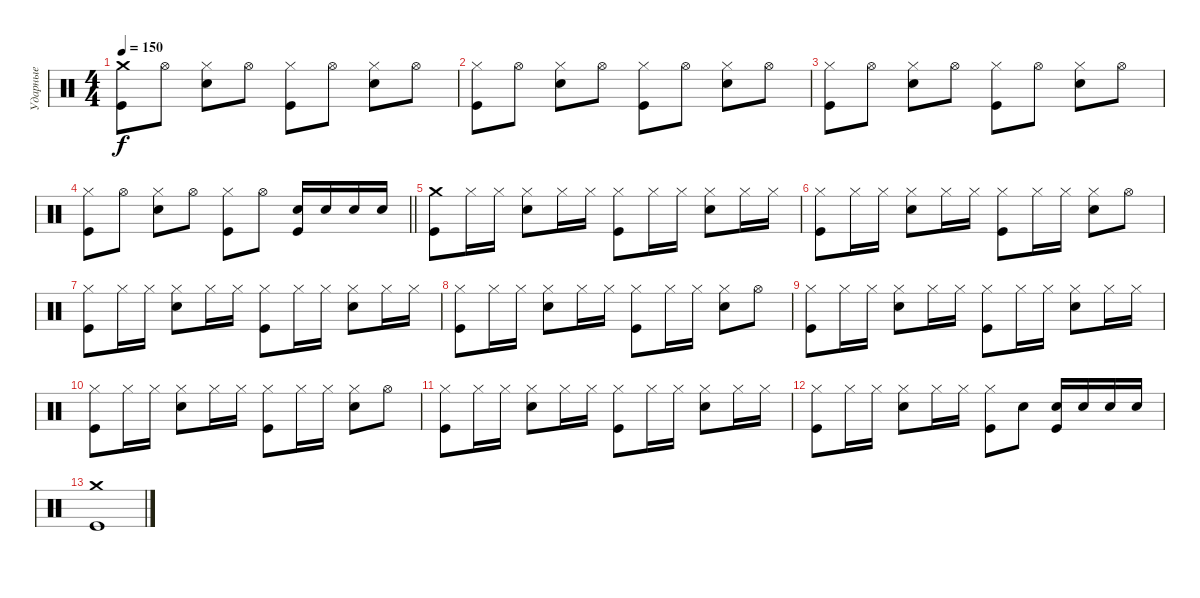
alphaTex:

\track ("Ударные" "Ударные") {instrument percussion}
\staff {score}
\articulation defaults
\ts (4 4)
\tempo 150
\clef neutral
\ks c
("Crash medium (hit)" "Kick (hit)").8{dy f} "Hi-Hat (open)".8 ("Hi-Hat (closed)" "Electric Snare (hit)").8 "Hi-Hat (open)".8 ("Hi-Hat (closed)" "Kick (hit)").8 "Hi-Hat (open)".8 ("Hi-Hat (closed)" "Electric Snare (hit)").8 "Hi-Hat (open)".8 |
("Hi-Hat (closed)" "Kick (hit)").8 "Hi-Hat (open)".8 ("Hi-Hat (closed)" "Electric Snare (hit)").8 "Hi-Hat (open)".8 ("Hi-Hat (closed)" "Kick (hit)").8 "Hi-Hat (open)".8 ("Hi-Hat (closed)" "Electric Snare (hit)").8 "Hi-Hat (open)".8 |
("Hi-Hat (closed)" "Kick (hit)").8 "Hi-Hat (open)".8 ("Hi-Hat (closed)" "Electric Snare (hit)").8 "Hi-Hat (open)".8 ("Hi-Hat (closed)" "Kick (hit)").8 "Hi-Hat (open)".8 ("Hi-Hat (closed)" "Electric Snare (hit)").8 "Hi-Hat (open)".8 |
\barLineRight lightlight
("Hi-Hat (closed)" "Kick (hit)").8 "Hi-Hat (open)".8 ("Hi-Hat (closed)" "Electric Snare (hit)").8 "Hi-Hat (open)".8 ("Hi-Hat (closed)" "Kick (hit)").8 "Hi-Hat (open)".8 ("Electric Snare (hit)" "Kick (hit)").16 "Electric Snare (hit)".16 "Electric Snare (hit)".16 "Electric Snare (hit)".16 |
\section ("" " ")
("Crash medium (hit)" "Kick (hit)").8 "Hi-Hat (closed)".16 "Hi-Hat (closed)".16 ("Hi-Hat (closed)" "Electric Snare (hit)").8 "Hi-Hat (closed)".16 "Hi-Hat (closed)".16 ("Hi-Hat (closed)" "Kick (hit)").8 "Hi-Hat (closed)".16 "Hi-Hat (closed)".16 ("Hi-Hat (closed)" "Electric Snare (hit)").8 "Hi-Hat (closed)".16 "Hi-Hat (closed)".16 |
("Hi-Hat (closed)" "Kick (hit)").8 "Hi-Hat (closed)".16 "Hi-Hat (closed)".16 ("Hi-Hat (closed)" "Electric Snare (hit)").8 "Hi-Hat (closed)".16 "Hi-Hat (closed)".16 ("Hi-Hat (closed)" "Kick (hit)").8 "Hi-Hat (closed)".16 "Hi-Hat (closed)".16 ("Hi-Hat (closed)" "Electric Snare (hit)").8 "Hi-Hat (open)".8 |
("Hi-Hat (closed)" "Kick (hit)").8 "Hi-Hat (closed)".16 "Hi-Hat (closed)".16 ("Hi-Hat (closed)" "Electric Snare (hit)").8 "Hi-Hat (closed)".16 "Hi-Hat (closed)".16 ("Hi-Hat (closed)" "Kick (hit)").8 "Hi-Hat (closed)".16 "Hi-Hat (closed)".16 ("Hi-Hat (closed)" "Electric Snare (hit)").8 "Hi-Hat (closed)".16 "Hi-Hat (closed)".16 |
("Hi-Hat (closed)" "Kick (hit)").8 "Hi-Hat (closed)".16 "Hi-Hat (closed)".16 ("Hi-Hat (closed)" "Electric Snare (hit)").8 "Hi-Hat (closed)".16 "Hi-Hat (closed)".16 ("Hi-Hat (closed)" "Kick (hit)").8 "Hi-Hat (closed)".16 "Hi-Hat (closed)".16 ("Hi-Hat (closed)" "Electric Snare (hit)").8 "Hi-Hat (open)".8 |
("Hi-Hat (closed)" "Kick (hit)").8 "Hi-Hat (closed)".16 "Hi-Hat (closed)".16 ("Hi-Hat (closed)" "Electric Snare (hit)").8 "Hi-Hat (closed)".16 "Hi-Hat (closed)".16 ("Hi-Hat (closed)" "Kick (hit)").8 "Hi-Hat (closed)".16 "Hi-Hat (closed)".16 ("Hi-Hat (closed)" "Electric Snare (hit)").8 "Hi-Hat (closed)".16 "Hi-Hat (closed)".16 |
("Hi-Hat (closed)" "Kick (hit)").8 "Hi-Hat (closed)".16 "Hi-Hat (closed)".16 ("Hi-Hat (closed)" "Electric Snare (hit)").8 "Hi-Hat (closed)".16 "Hi-Hat (closed)".16 ("Hi-Hat (closed)" "Kick (hit)").8 "Hi-Hat (closed)".16 "Hi-Hat (closed)".16 ("Hi-Hat (closed)" "Electric Snare (hit)").8 "Hi-Hat (open)".8 |
("Hi-Hat (closed)" "Kick (hit)").8 "Hi-Hat (closed)".16 "Hi-Hat (closed)".16 ("Hi-Hat (closed)" "Electric Snare (hit)").8 "Hi-Hat (closed)".16 "Hi-Hat (closed)".16 ("Hi-Hat (closed)" "Kick (hit)").8 "Hi-Hat (closed)".16 "Hi-Hat (closed)".16 ("Hi-Hat (closed)" "Electric Snare (hit)").8 "Hi-Hat (closed)".16 "Hi-Hat (closed)".16 |
("Hi-Hat (closed)" "Kick (hit)").8 "Hi-Hat (closed)".16 "Hi-Hat (closed)".16 ("Hi-Hat (closed)" "Electric Snare (hit)").8 "Hi-Hat (closed)".16 "Hi-Hat (closed)".16 ("Hi-Hat (closed)" "Kick (hit)").8 "Electric Snare (hit)".8 ("Electric Snare (hit)" "Kick (hit)").16 "Electric Snare (hit)".16 "Electric Snare (hit)".16 "Electric Snare (hit)".16 |
("Crash medium (hit)" "Kick (hit)").1
